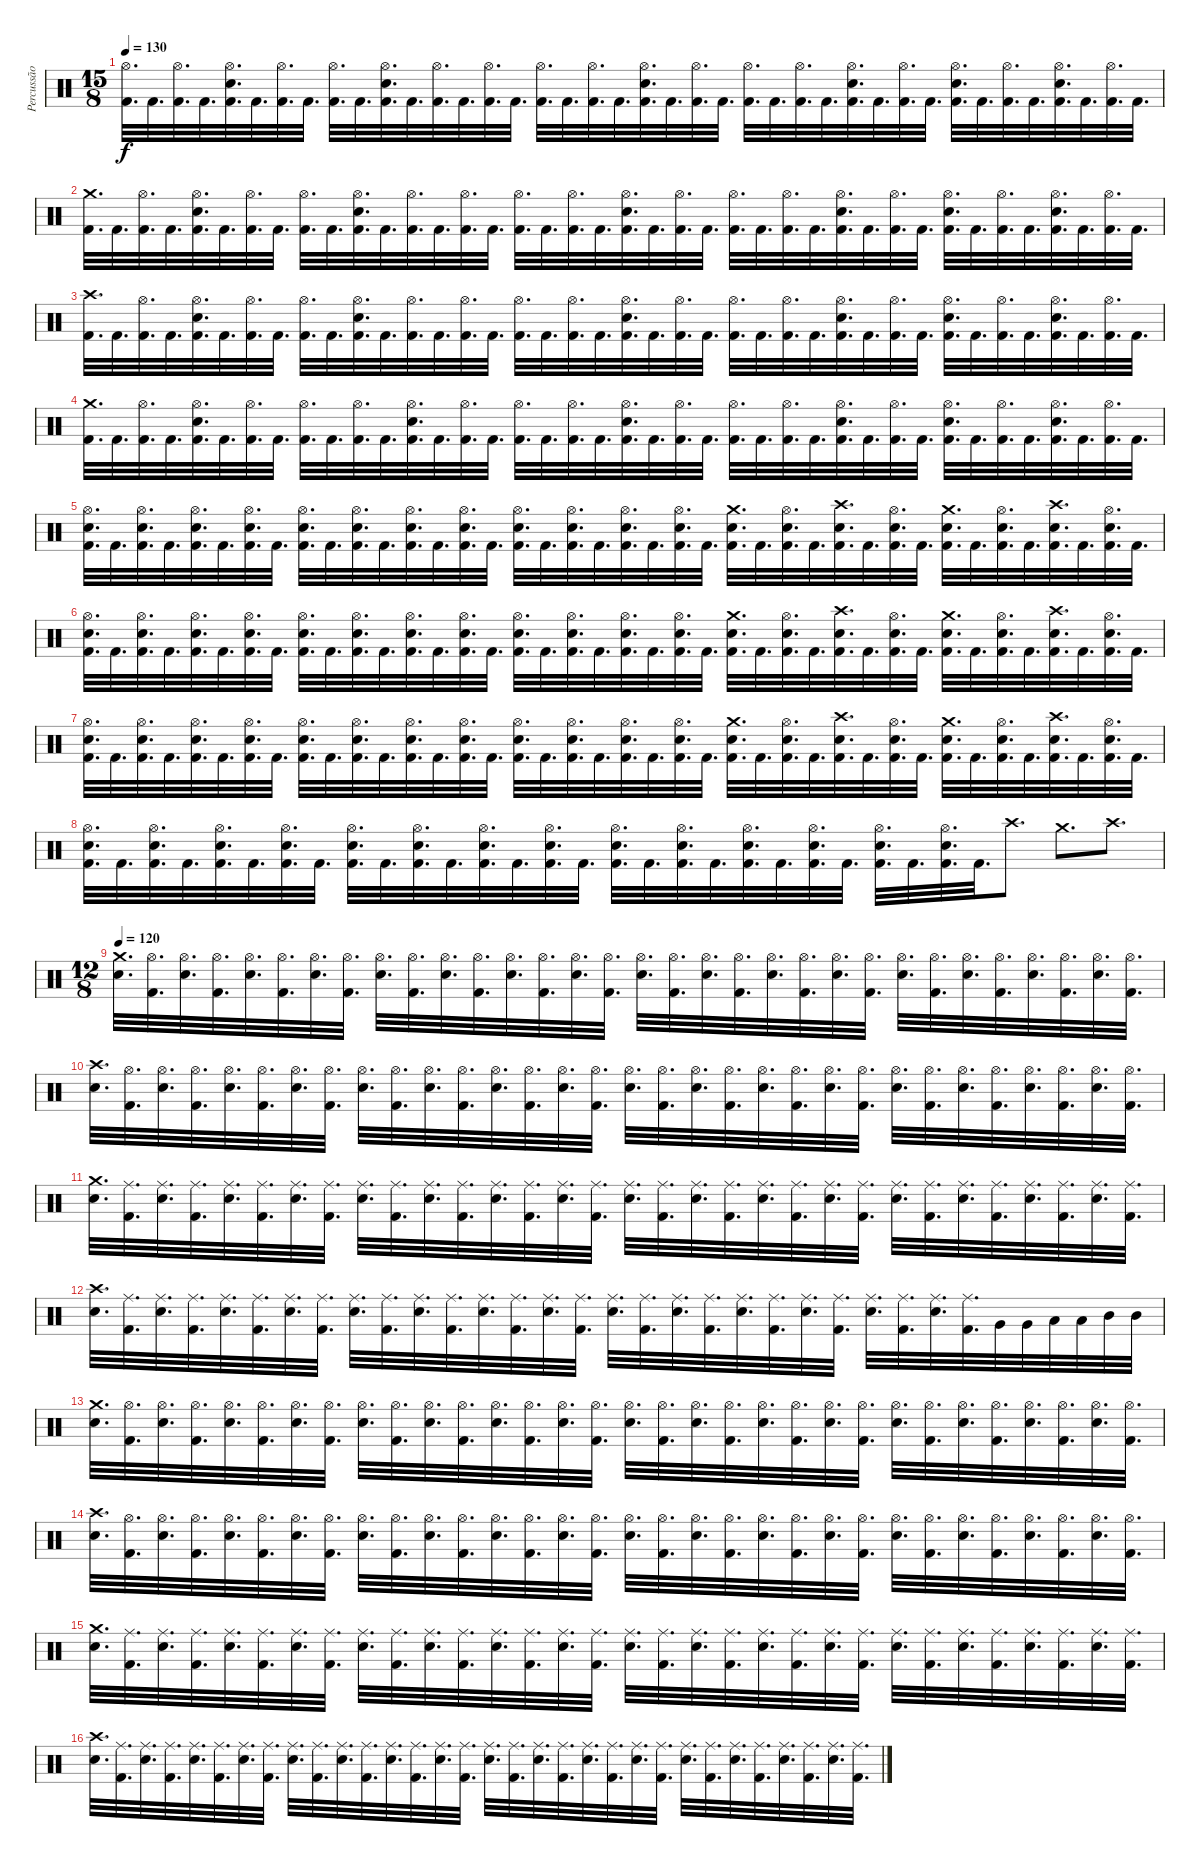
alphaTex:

\track ("Percussão" "Percussão") {instrument percussion}
\staff {score}
\articulation defaults
\ts (15 8)
\tempo 130
\clef neutral
\ks c
("Hi-Hat (open)" "Kick (hit) 2").32{d dy f} "Kick (hit) 2".32{d} ("Hi-Hat (open)" "Kick (hit) 2").32{d} "Kick (hit) 2".32{d} ("Hi-Hat (open)" "Electric Snare (hit)" "Kick (hit) 2").32{d} "Kick (hit) 2".32{d} ("Hi-Hat (open)" "Kick (hit) 2").32{d} "Kick (hit) 2".32{d} ("Hi-Hat (open)" "Kick (hit) 2").32{d} "Kick (hit) 2".32{d} ("Hi-Hat (open)" "Electric Snare (hit)" "Kick (hit) 2").32{d} "Kick (hit) 2".32{d} ("Hi-Hat (open)" "Kick (hit) 2").32{d} "Kick (hit) 2".32{d} ("Hi-Hat (open)" "Kick (hit) 2").32{d} "Kick (hit) 2".32{d} ("Hi-Hat (open)" "Kick (hit) 2").32{d} "Kick (hit) 2".32{d} ("Hi-Hat (open)" "Kick (hit) 2").32{d} "Kick (hit) 2".32{d} ("Hi-Hat (open)" "Electric Snare (hit)" "Kick (hit) 2").32{d} "Kick (hit) 2".32{d} ("Hi-Hat (open)" "Kick (hit) 2").32{d} "Kick (hit) 2".32{d} ("Hi-Hat (open)" "Kick (hit) 2").32{d} "Kick (hit) 2".32{d} ("Hi-Hat (open)" "Kick (hit) 2").32{d} "Kick (hit) 2".32{d} ("Hi-Hat (open)" "Electric Snare (hit)" "Kick (hit) 2").32{d} "Kick (hit) 2".32{d} ("Hi-Hat (open)" "Kick (hit) 2").32{d} "Kick (hit) 2".32{d} ("Hi-Hat (open)" "Electric Snare (hit)" "Kick (hit) 2").32{d} "Kick (hit) 2".32{d} ("Hi-Hat (open)" "Kick (hit) 2").32{d} "Kick (hit) 2".32{d} ("Hi-Hat (open)" "Electric Snare (hit)" "Kick (hit) 2").32{d} "Kick (hit) 2".32{d} ("Hi-Hat (open)" "Kick (hit) 2").32{d} "Kick (hit) 2".32{d} |
("Crash medium (hit)" "Kick (hit) 2").32{d} "Kick (hit) 2".32{d} ("Hi-Hat (open)" "Kick (hit) 2").32{d} "Kick (hit) 2".32{d} ("Hi-Hat (open)" "Electric Snare (hit)" "Kick (hit) 2").32{d} "Kick (hit) 2".32{d} ("Hi-Hat (open)" "Kick (hit) 2").32{d} "Kick (hit) 2".32{d} ("Hi-Hat (open)" "Kick (hit) 2").32{d} "Kick (hit) 2".32{d} ("Hi-Hat (open)" "Electric Snare (hit)" "Kick (hit) 2").32{d} "Kick (hit) 2".32{d} ("Hi-Hat (open)" "Kick (hit) 2").32{d} "Kick (hit) 2".32{d} ("Hi-Hat (open)" "Kick (hit) 2").32{d} "Kick (hit) 2".32{d} ("Hi-Hat (open)" "Kick (hit) 2").32{d} "Kick (hit) 2".32{d} ("Hi-Hat (open)" "Kick (hit) 2").32{d} "Kick (hit) 2".32{d} ("Hi-Hat (open)" "Electric Snare (hit)" "Kick (hit) 2").32{d} "Kick (hit) 2".32{d} ("Hi-Hat (open)" "Kick (hit) 2").32{d} "Kick (hit) 2".32{d} ("Hi-Hat (open)" "Kick (hit) 2").32{d} "Kick (hit) 2".32{d} ("Hi-Hat (open)" "Kick (hit) 2").32{d} "Kick (hit) 2".32{d} ("Hi-Hat (open)" "Electric Snare (hit)" "Kick (hit) 2").32{d} "Kick (hit) 2".32{d} ("Hi-Hat (open)" "Kick (hit) 2").32{d} "Kick (hit) 2".32{d} ("Hi-Hat (open)" "Electric Snare (hit)" "Kick (hit) 2").32{d} "Kick (hit) 2".32{d} ("Hi-Hat (open)" "Kick (hit) 2").32{d} "Kick (hit) 2".32{d} ("Hi-Hat (open)" "Electric Snare (hit)" "Kick (hit) 2").32{d} "Kick (hit) 2".32{d} ("Hi-Hat (open)" "Kick (hit) 2").32{d} "Kick (hit) 2".32{d} |
("Crash high (hit)" "Kick (hit) 2").32{d} "Kick (hit) 2".32{d} ("Hi-Hat (open)" "Kick (hit) 2").32{d} "Kick (hit) 2".32{d} ("Hi-Hat (open)" "Electric Snare (hit)" "Kick (hit) 2").32{d} "Kick (hit) 2".32{d} ("Hi-Hat (open)" "Kick (hit) 2").32{d} "Kick (hit) 2".32{d} ("Hi-Hat (open)" "Kick (hit) 2").32{d} "Kick (hit) 2".32{d} ("Hi-Hat (open)" "Electric Snare (hit)" "Kick (hit) 2").32{d} "Kick (hit) 2".32{d} ("Hi-Hat (open)" "Kick (hit) 2").32{d} "Kick (hit) 2".32{d} ("Hi-Hat (open)" "Kick (hit) 2").32{d} "Kick (hit) 2".32{d} ("Hi-Hat (open)" "Kick (hit) 2").32{d} "Kick (hit) 2".32{d} ("Hi-Hat (open)" "Kick (hit) 2").32{d} "Kick (hit) 2".32{d} ("Hi-Hat (open)" "Electric Snare (hit)" "Kick (hit) 2").32{d} "Kick (hit) 2".32{d} ("Hi-Hat (open)" "Kick (hit) 2").32{d} "Kick (hit) 2".32{d} ("Hi-Hat (open)" "Kick (hit) 2").32{d} "Kick (hit) 2".32{d} ("Hi-Hat (open)" "Kick (hit) 2").32{d} "Kick (hit) 2".32{d} ("Hi-Hat (open)" "Electric Snare (hit)" "Kick (hit) 2").32{d} "Kick (hit) 2".32{d} ("Hi-Hat (open)" "Kick (hit) 2").32{d} "Kick (hit) 2".32{d} ("Hi-Hat (open)" "Electric Snare (hit)" "Kick (hit) 2").32{d} "Kick (hit) 2".32{d} ("Hi-Hat (open)" "Kick (hit) 2").32{d} "Kick (hit) 2".32{d} ("Hi-Hat (open)" "Electric Snare (hit)" "Kick (hit) 2").32{d} "Kick (hit) 2".32{d} ("Hi-Hat (open)" "Kick (hit) 2").32{d} "Kick (hit) 2".32{d} |
("Crash medium (hit)" "Kick (hit) 2").32{d} "Kick (hit) 2".32{d} ("Hi-Hat (open)" "Kick (hit) 2").32{d} "Kick (hit) 2".32{d} ("Hi-Hat (open)" "Electric Snare (hit)" "Kick (hit) 2").32{d} "Kick (hit) 2".32{d} ("Hi-Hat (open)" "Kick (hit) 2").32{d} "Kick (hit) 2".32{d} ("Hi-Hat (open)" "Kick (hit) 2").32{d} "Kick (hit) 2".32{d} ("Hi-Hat (open)" "Kick (hit) 2").32{d} "Kick (hit) 2".32{d} ("Hi-Hat (open)" "Electric Snare (hit)" "Kick (hit) 2").32{d} "Kick (hit) 2".32{d} ("Hi-Hat (open)" "Kick (hit) 2").32{d} "Kick (hit) 2".32{d} ("Hi-Hat (open)" "Kick (hit) 2").32{d} "Kick (hit) 2".32{d} ("Hi-Hat (open)" "Kick (hit) 2").32{d} "Kick (hit) 2".32{d} ("Hi-Hat (open)" "Electric Snare (hit)" "Kick (hit) 2").32{d} "Kick (hit) 2".32{d} ("Hi-Hat (open)" "Kick (hit) 2").32{d} "Kick (hit) 2".32{d} ("Hi-Hat (open)" "Kick (hit) 2").32{d} "Kick (hit) 2".32{d} ("Hi-Hat (open)" "Kick (hit) 2").32{d} "Kick (hit) 2".32{d} ("Hi-Hat (open)" "Electric Snare (hit)" "Kick (hit) 2").32{d} "Kick (hit) 2".32{d} ("Hi-Hat (open)" "Kick (hit) 2").32{d} "Kick (hit) 2".32{d} ("Hi-Hat (open)" "Electric Snare (hit)" "Kick (hit) 2").32{d} "Kick (hit) 2".32{d} ("Hi-Hat (open)" "Kick (hit) 2").32{d} "Kick (hit) 2".32{d} ("Hi-Hat (open)" "Electric Snare (hit)" "Kick (hit) 2").32{d} "Kick (hit) 2".32{d} ("Hi-Hat (open)" "Kick (hit) 2").32{d} "Kick (hit) 2".32{d} |
("Hi-Hat (open)" "Electric Snare (hit)" "Kick (hit) 2").32{d} "Kick (hit) 2".32{d} ("Hi-Hat (open)" "Electric Snare (hit)" "Kick (hit) 2").32{d} "Kick (hit) 2".32{d} ("Hi-Hat (open)" "Electric Snare (hit)" "Kick (hit) 2").32{d} "Kick (hit) 2".32{d} ("Hi-Hat (open)" "Electric Snare (hit)" "Kick (hit) 2").32{d} "Kick (hit) 2".32{d} ("Hi-Hat (open)" "Electric Snare (hit)" "Kick (hit) 2").32{d} "Kick (hit) 2".32{d} ("Hi-Hat (open)" "Electric Snare (hit)" "Kick (hit) 2").32{d} "Kick (hit) 2".32{d} ("Hi-Hat (open)" "Electric Snare (hit)" "Kick (hit) 2").32{d} "Kick (hit) 2".32{d} ("Hi-Hat (open)" "Electric Snare (hit)" "Kick (hit) 2").32{d} "Kick (hit) 2".32{d} ("Hi-Hat (open)" "Electric Snare (hit)" "Kick (hit) 2").32{d} "Kick (hit) 2".32{d} ("Hi-Hat (open)" "Electric Snare (hit)" "Kick (hit) 2").32{d} "Kick (hit) 2".32{d} ("Hi-Hat (open)" "Electric Snare (hit)" "Kick (hit) 2").32{d} "Kick (hit) 2".32{d} ("Hi-Hat (open)" "Electric Snare (hit)" "Kick (hit) 2").32{d} "Kick (hit) 2".32{d} ("Crash medium (hit)" "Electric Snare (hit)" "Kick (hit) 2").32{d} "Kick (hit) 2".32{d} ("Hi-Hat (open)" "Electric Snare (hit)" "Kick (hit) 2").32{d} "Kick (hit) 2".32{d} ("Crash high (hit)" "Electric Snare (hit)" "Kick (hit) 2").32{d} "Kick (hit) 2".32{d} ("Hi-Hat (open)" "Electric Snare (hit)" "Kick (hit) 2").32{d} "Kick (hit) 2".32{d} ("Crash medium (hit)" "Electric Snare (hit)" "Kick (hit) 2").32{d} "Kick (hit) 2".32{d} ("Hi-Hat (open)" "Electric Snare (hit)" "Kick (hit) 2").32{d} "Kick (hit) 2".32{d} ("Crash high (hit)" "Electric Snare (hit)" "Kick (hit) 2").32{d} "Kick (hit) 2".32{d} ("Hi-Hat (open)" "Electric Snare (hit)" "Kick (hit) 2").32{d} "Kick (hit) 2".32{d} |
("Hi-Hat (open)" "Electric Snare (hit)" "Kick (hit) 2").32{d} "Kick (hit) 2".32{d} ("Hi-Hat (open)" "Electric Snare (hit)" "Kick (hit) 2").32{d} "Kick (hit) 2".32{d} ("Hi-Hat (open)" "Electric Snare (hit)" "Kick (hit) 2").32{d} "Kick (hit) 2".32{d} ("Hi-Hat (open)" "Electric Snare (hit)" "Kick (hit) 2").32{d} "Kick (hit) 2".32{d} ("Hi-Hat (open)" "Electric Snare (hit)" "Kick (hit) 2").32{d} "Kick (hit) 2".32{d} ("Hi-Hat (open)" "Electric Snare (hit)" "Kick (hit) 2").32{d} "Kick (hit) 2".32{d} ("Hi-Hat (open)" "Electric Snare (hit)" "Kick (hit) 2").32{d} "Kick (hit) 2".32{d} ("Hi-Hat (open)" "Electric Snare (hit)" "Kick (hit) 2").32{d} "Kick (hit) 2".32{d} ("Hi-Hat (open)" "Electric Snare (hit)" "Kick (hit) 2").32{d} "Kick (hit) 2".32{d} ("Hi-Hat (open)" "Electric Snare (hit)" "Kick (hit) 2").32{d} "Kick (hit) 2".32{d} ("Hi-Hat (open)" "Electric Snare (hit)" "Kick (hit) 2").32{d} "Kick (hit) 2".32{d} ("Hi-Hat (open)" "Electric Snare (hit)" "Kick (hit) 2").32{d} "Kick (hit) 2".32{d} ("Crash medium (hit)" "Electric Snare (hit)" "Kick (hit) 2").32{d} "Kick (hit) 2".32{d} ("Hi-Hat (open)" "Electric Snare (hit)" "Kick (hit) 2").32{d} "Kick (hit) 2".32{d} ("Crash high (hit)" "Electric Snare (hit)" "Kick (hit) 2").32{d} "Kick (hit) 2".32{d} ("Hi-Hat (open)" "Electric Snare (hit)" "Kick (hit) 2").32{d} "Kick (hit) 2".32{d} ("Crash medium (hit)" "Electric Snare (hit)" "Kick (hit) 2").32{d} "Kick (hit) 2".32{d} ("Hi-Hat (open)" "Electric Snare (hit)" "Kick (hit) 2").32{d} "Kick (hit) 2".32{d} ("Crash high (hit)" "Electric Snare (hit)" "Kick (hit) 2").32{d} "Kick (hit) 2".32{d} ("Hi-Hat (open)" "Electric Snare (hit)" "Kick (hit) 2").32{d} "Kick (hit) 2".32{d} |
("Hi-Hat (open)" "Electric Snare (hit)" "Kick (hit) 2").32{d} "Kick (hit) 2".32{d} ("Hi-Hat (open)" "Electric Snare (hit)" "Kick (hit) 2").32{d} "Kick (hit) 2".32{d} ("Hi-Hat (open)" "Electric Snare (hit)" "Kick (hit) 2").32{d} "Kick (hit) 2".32{d} ("Hi-Hat (open)" "Electric Snare (hit)" "Kick (hit) 2").32{d} "Kick (hit) 2".32{d} ("Hi-Hat (open)" "Electric Snare (hit)" "Kick (hit) 2").32{d} "Kick (hit) 2".32{d} ("Hi-Hat (open)" "Electric Snare (hit)" "Kick (hit) 2").32{d} "Kick (hit) 2".32{d} ("Hi-Hat (open)" "Electric Snare (hit)" "Kick (hit) 2").32{d} "Kick (hit) 2".32{d} ("Hi-Hat (open)" "Electric Snare (hit)" "Kick (hit) 2").32{d} "Kick (hit) 2".32{d} ("Hi-Hat (open)" "Electric Snare (hit)" "Kick (hit) 2").32{d} "Kick (hit) 2".32{d} ("Hi-Hat (open)" "Electric Snare (hit)" "Kick (hit) 2").32{d} "Kick (hit) 2".32{d} ("Hi-Hat (open)" "Electric Snare (hit)" "Kick (hit) 2").32{d} "Kick (hit) 2".32{d} ("Hi-Hat (open)" "Electric Snare (hit)" "Kick (hit) 2").32{d} "Kick (hit) 2".32{d} ("Crash medium (hit)" "Electric Snare (hit)" "Kick (hit) 2").32{d} "Kick (hit) 2".32{d} ("Hi-Hat (open)" "Electric Snare (hit)" "Kick (hit) 2").32{d} "Kick (hit) 2".32{d} ("Crash high (hit)" "Electric Snare (hit)" "Kick (hit) 2").32{d} "Kick (hit) 2".32{d} ("Hi-Hat (open)" "Electric Snare (hit)" "Kick (hit) 2").32{d} "Kick (hit) 2".32{d} ("Crash medium (hit)" "Electric Snare (hit)" "Kick (hit) 2").32{d} "Kick (hit) 2".32{d} ("Hi-Hat (open)" "Electric Snare (hit)" "Kick (hit) 2").32{d} "Kick (hit) 2".32{d} ("Crash high (hit)" "Electric Snare (hit)" "Kick (hit) 2").32{d} "Kick (hit) 2".32{d} ("Hi-Hat (open)" "Electric Snare (hit)" "Kick (hit) 2").32{d} "Kick (hit) 2".32{d} |
("Hi-Hat (open)" "Electric Snare (hit)" "Kick (hit) 2").32{d} "Kick (hit) 2".32{d} ("Hi-Hat (open)" "Electric Snare (hit)" "Kick (hit) 2").32{d} "Kick (hit) 2".32{d} ("Hi-Hat (open)" "Electric Snare (hit)" "Kick (hit) 2").32{d} "Kick (hit) 2".32{d} ("Hi-Hat (open)" "Electric Snare (hit)" "Kick (hit) 2").32{d} "Kick (hit) 2".32{d} ("Hi-Hat (open)" "Electric Snare (hit)" "Kick (hit) 2").32{d} "Kick (hit) 2".32{d} ("Hi-Hat (open)" "Electric Snare (hit)" "Kick (hit) 2").32{d} "Kick (hit) 2".32{d} ("Hi-Hat (open)" "Electric Snare (hit)" "Kick (hit) 2").32{d} "Kick (hit) 2".32{d} ("Hi-Hat (open)" "Electric Snare (hit)" "Kick (hit) 2").32{d} "Kick (hit) 2".32{d} ("Hi-Hat (open)" "Electric Snare (hit)" "Kick (hit) 2").32{d} "Kick (hit) 2".32{d} ("Hi-Hat (open)" "Electric Snare (hit)" "Kick (hit) 2").32{d} "Kick (hit) 2".32{d} ("Hi-Hat (open)" "Electric Snare (hit)" "Kick (hit) 2").32{d} "Kick (hit) 2".32{d} ("Hi-Hat (open)" "Electric Snare (hit)" "Kick (hit) 2").32{d} "Kick (hit) 2".32{d} ("Hi-Hat (open)" "Electric Snare (hit)" "Kick (hit) 2").32{d} "Kick (hit) 2".32{d} ("Hi-Hat (open)" "Electric Snare (hit)" "Kick (hit) 2").32{d} "Kick (hit) 2".32{d} "Crash high (hit)".8{d} "Crash medium (hit)".8{d} "Crash high (hit)".8{d} |
\ts (12 8)
\tempo 120
("Crash medium (hit)" "Electric Snare (hit)").32{d} ("Hi-Hat (open)" "Kick (hit) 2").32{d} ("Hi-Hat (open)" "Electric Snare (hit)").32{d} ("Hi-Hat (open)" "Kick (hit) 2").32{d} ("Hi-Hat (open)" "Electric Snare (hit)").32{d} ("Hi-Hat (open)" "Kick (hit) 2").32{d} ("Hi-Hat (open)" "Electric Snare (hit)").32{d} ("Hi-Hat (open)" "Kick (hit) 2").32{d} ("Hi-Hat (open)" "Electric Snare (hit)").32{d} ("Hi-Hat (open)" "Kick (hit) 2").32{d} ("Hi-Hat (open)" "Electric Snare (hit)").32{d} ("Hi-Hat (open)" "Kick (hit) 2").32{d} ("Hi-Hat (open)" "Electric Snare (hit)").32{d} ("Hi-Hat (open)" "Kick (hit) 2").32{d} ("Hi-Hat (open)" "Electric Snare (hit)").32{d} ("Hi-Hat (open)" "Kick (hit) 2").32{d} ("Hi-Hat (open)" "Electric Snare (hit)").32{d} ("Hi-Hat (open)" "Kick (hit) 2").32{d} ("Hi-Hat (open)" "Electric Snare (hit)").32{d} ("Hi-Hat (open)" "Kick (hit) 2").32{d} ("Hi-Hat (open)" "Electric Snare (hit)").32{d} ("Hi-Hat (open)" "Kick (hit) 2").32{d} ("Hi-Hat (open)" "Electric Snare (hit)").32{d} ("Hi-Hat (open)" "Kick (hit) 2").32{d} ("Hi-Hat (open)" "Electric Snare (hit)").32{d} ("Hi-Hat (open)" "Kick (hit) 2").32{d} ("Hi-Hat (open)" "Electric Snare (hit)").32{d} ("Hi-Hat (open)" "Kick (hit) 2").32{d} ("Hi-Hat (open)" "Electric Snare (hit)").32{d} ("Hi-Hat (open)" "Kick (hit) 2").32{d} ("Hi-Hat (open)" "Electric Snare (hit)").32{d} ("Hi-Hat (open)" "Kick (hit) 2").32{d} |
("Crash high (hit)" "Electric Snare (hit)").32{d} ("Hi-Hat (open)" "Kick (hit) 2").32{d} ("Hi-Hat (open)" "Electric Snare (hit)").32{d} ("Hi-Hat (open)" "Kick (hit) 2").32{d} ("Hi-Hat (open)" "Electric Snare (hit)").32{d} ("Hi-Hat (open)" "Kick (hit) 2").32{d} ("Hi-Hat (open)" "Electric Snare (hit)").32{d} ("Hi-Hat (open)" "Kick (hit) 2").32{d} ("Hi-Hat (open)" "Electric Snare (hit)").32{d} ("Hi-Hat (open)" "Kick (hit) 2").32{d} ("Hi-Hat (open)" "Electric Snare (hit)").32{d} ("Hi-Hat (open)" "Kick (hit) 2").32{d} ("Hi-Hat (open)" "Electric Snare (hit)").32{d} ("Hi-Hat (open)" "Kick (hit) 2").32{d} ("Hi-Hat (open)" "Electric Snare (hit)").32{d} ("Hi-Hat (open)" "Kick (hit) 2").32{d} ("Hi-Hat (open)" "Electric Snare (hit)").32{d} ("Hi-Hat (open)" "Kick (hit) 2").32{d} ("Hi-Hat (open)" "Electric Snare (hit)").32{d} ("Hi-Hat (open)" "Kick (hit) 2").32{d} ("Hi-Hat (open)" "Electric Snare (hit)").32{d} ("Hi-Hat (open)" "Kick (hit) 2").32{d} ("Hi-Hat (open)" "Electric Snare (hit)").32{d} ("Hi-Hat (open)" "Kick (hit) 2").32{d} ("Hi-Hat (open)" "Electric Snare (hit)").32{d} ("Hi-Hat (open)" "Kick (hit) 2").32{d} ("Hi-Hat (open)" "Electric Snare (hit)").32{d} ("Hi-Hat (open)" "Kick (hit) 2").32{d} ("Hi-Hat (open)" "Electric Snare (hit)").32{d} ("Hi-Hat (open)" "Kick (hit) 2").32{d} ("Hi-Hat (open)" "Electric Snare (hit)").32{d} ("Hi-Hat (open)" "Kick (hit) 2").32{d} |
("Crash medium (hit)" "Electric Snare (hit)").32{d} ("Ride (middle)" "Kick (hit) 2").32{d} ("Ride (middle)" "Electric Snare (hit)").32{d} ("Ride (middle)" "Kick (hit) 2").32{d} ("Ride (middle)" "Electric Snare (hit)").32{d} ("Ride (middle)" "Kick (hit) 2").32{d} ("Ride (middle)" "Electric Snare (hit)").32{d} ("Ride (middle)" "Kick (hit) 2").32{d} ("Ride (middle)" "Electric Snare (hit)").32{d} ("Ride (middle)" "Kick (hit) 2").32{d} ("Ride (middle)" "Electric Snare (hit)").32{d} ("Ride (middle)" "Kick (hit) 2").32{d} ("Ride (middle)" "Electric Snare (hit)").32{d} ("Ride (middle)" "Kick (hit) 2").32{d} ("Ride (middle)" "Electric Snare (hit)").32{d} ("Ride (middle)" "Kick (hit) 2").32{d} ("Ride (middle)" "Electric Snare (hit)").32{d} ("Ride (middle)" "Kick (hit) 2").32{d} ("Ride (middle)" "Electric Snare (hit)").32{d} ("Ride (middle)" "Kick (hit) 2").32{d} ("Ride (middle)" "Electric Snare (hit)").32{d} ("Ride (middle)" "Kick (hit) 2").32{d} ("Ride (middle)" "Electric Snare (hit)").32{d} ("Ride (middle)" "Kick (hit) 2").32{d} ("Ride (middle)" "Electric Snare (hit)").32{d} ("Ride (middle)" "Kick (hit) 2").32{d} ("Ride (middle)" "Electric Snare (hit)").32{d} ("Ride (middle)" "Kick (hit) 2").32{d} ("Ride (middle)" "Electric Snare (hit)").32{d} ("Ride (middle)" "Kick (hit) 2").32{d} ("Ride (middle)" "Electric Snare (hit)").32{d} ("Ride (middle)" "Kick (hit) 2").32{d} |
("Crash high (hit)" "Electric Snare (hit)").32{d} ("Ride (middle)" "Kick (hit) 2").32{d} ("Ride (middle)" "Electric Snare (hit)").32{d} ("Ride (middle)" "Kick (hit) 2").32{d} ("Ride (middle)" "Electric Snare (hit)").32{d} ("Ride (middle)" "Kick (hit) 2").32{d} ("Ride (middle)" "Electric Snare (hit)").32{d} ("Ride (middle)" "Kick (hit) 2").32{d} ("Ride (middle)" "Electric Snare (hit)").32{d} ("Ride (middle)" "Kick (hit) 2").32{d} ("Ride (middle)" "Electric Snare (hit)").32{d} ("Ride (middle)" "Kick (hit) 2").32{d} ("Ride (middle)" "Electric Snare (hit)").32{d} ("Ride (middle)" "Kick (hit) 2").32{d} ("Ride (middle)" "Electric Snare (hit)").32{d} ("Ride (middle)" "Kick (hit) 2").32{d} ("Ride (middle)" "Electric Snare (hit)").32{d} ("Ride (middle)" "Kick (hit) 2").32{d} ("Ride (middle)" "Electric Snare (hit)").32{d} ("Ride (middle)" "Kick (hit) 2").32{d} ("Ride (middle)" "Electric Snare (hit)").32{d} ("Ride (middle)" "Kick (hit) 2").32{d} ("Ride (middle)" "Electric Snare (hit)").32{d} ("Ride (middle)" "Kick (hit) 2").32{d} ("Ride (middle)" "Electric Snare (hit)").32{d} ("Ride (middle)" "Kick (hit) 2").32{d} ("Ride (middle)" "Electric Snare (hit)").32{d} ("Ride (middle)" "Kick (hit) 2").32{d} "Very Low Tom (hit)".32 "Very Low Tom (hit)".32 "Low Tom (hit)".32 "Low Tom (hit)".32 "Mid Tom (hit)".32 "Mid Tom (hit)".32 |
("Crash medium (hit)" "Electric Snare (hit)").32{d} ("Hi-Hat (open)" "Kick (hit) 2").32{d} ("Hi-Hat (open)" "Electric Snare (hit)").32{d} ("Hi-Hat (open)" "Kick (hit) 2").32{d} ("Hi-Hat (open)" "Electric Snare (hit)").32{d} ("Hi-Hat (open)" "Kick (hit) 2").32{d} ("Hi-Hat (open)" "Electric Snare (hit)").32{d} ("Hi-Hat (open)" "Kick (hit) 2").32{d} ("Hi-Hat (open)" "Electric Snare (hit)").32{d} ("Hi-Hat (open)" "Kick (hit) 2").32{d} ("Hi-Hat (open)" "Electric Snare (hit)").32{d} ("Hi-Hat (open)" "Kick (hit) 2").32{d} ("Hi-Hat (open)" "Electric Snare (hit)").32{d} ("Hi-Hat (open)" "Kick (hit) 2").32{d} ("Hi-Hat (open)" "Electric Snare (hit)").32{d} ("Hi-Hat (open)" "Kick (hit) 2").32{d} ("Hi-Hat (open)" "Electric Snare (hit)").32{d} ("Hi-Hat (open)" "Kick (hit) 2").32{d} ("Hi-Hat (open)" "Electric Snare (hit)").32{d} ("Hi-Hat (open)" "Kick (hit) 2").32{d} ("Hi-Hat (open)" "Electric Snare (hit)").32{d} ("Hi-Hat (open)" "Kick (hit) 2").32{d} ("Hi-Hat (open)" "Electric Snare (hit)").32{d} ("Hi-Hat (open)" "Kick (hit) 2").32{d} ("Hi-Hat (open)" "Electric Snare (hit)").32{d} ("Hi-Hat (open)" "Kick (hit) 2").32{d} ("Hi-Hat (open)" "Electric Snare (hit)").32{d} ("Hi-Hat (open)" "Kick (hit) 2").32{d} ("Hi-Hat (open)" "Electric Snare (hit)").32{d} ("Hi-Hat (open)" "Kick (hit) 2").32{d} ("Hi-Hat (open)" "Electric Snare (hit)").32{d} ("Hi-Hat (open)" "Kick (hit) 2").32{d} |
("Crash high (hit)" "Electric Snare (hit)").32{d} ("Hi-Hat (open)" "Kick (hit) 2").32{d} ("Hi-Hat (open)" "Electric Snare (hit)").32{d} ("Hi-Hat (open)" "Kick (hit) 2").32{d} ("Hi-Hat (open)" "Electric Snare (hit)").32{d} ("Hi-Hat (open)" "Kick (hit) 2").32{d} ("Hi-Hat (open)" "Electric Snare (hit)").32{d} ("Hi-Hat (open)" "Kick (hit) 2").32{d} ("Hi-Hat (open)" "Electric Snare (hit)").32{d} ("Hi-Hat (open)" "Kick (hit) 2").32{d} ("Hi-Hat (open)" "Electric Snare (hit)").32{d} ("Hi-Hat (open)" "Kick (hit) 2").32{d} ("Hi-Hat (open)" "Electric Snare (hit)").32{d} ("Hi-Hat (open)" "Kick (hit) 2").32{d} ("Hi-Hat (open)" "Electric Snare (hit)").32{d} ("Hi-Hat (open)" "Kick (hit) 2").32{d} ("Hi-Hat (open)" "Electric Snare (hit)").32{d} ("Hi-Hat (open)" "Kick (hit) 2").32{d} ("Hi-Hat (open)" "Electric Snare (hit)").32{d} ("Hi-Hat (open)" "Kick (hit) 2").32{d} ("Hi-Hat (open)" "Electric Snare (hit)").32{d} ("Hi-Hat (open)" "Kick (hit) 2").32{d} ("Hi-Hat (open)" "Electric Snare (hit)").32{d} ("Hi-Hat (open)" "Kick (hit) 2").32{d} ("Hi-Hat (open)" "Electric Snare (hit)").32{d} ("Hi-Hat (open)" "Kick (hit) 2").32{d} ("Hi-Hat (open)" "Electric Snare (hit)").32{d} ("Hi-Hat (open)" "Kick (hit) 2").32{d} ("Hi-Hat (open)" "Electric Snare (hit)").32{d} ("Hi-Hat (open)" "Kick (hit) 2").32{d} ("Hi-Hat (open)" "Electric Snare (hit)").32{d} ("Hi-Hat (open)" "Kick (hit) 2").32{d} |
("Crash medium (hit)" "Electric Snare (hit)").32{d} ("Ride (middle)" "Kick (hit) 2").32{d} ("Ride (middle)" "Electric Snare (hit)").32{d} ("Ride (middle)" "Kick (hit) 2").32{d} ("Ride (middle)" "Electric Snare (hit)").32{d} ("Ride (middle)" "Kick (hit) 2").32{d} ("Ride (middle)" "Electric Snare (hit)").32{d} ("Ride (middle)" "Kick (hit) 2").32{d} ("Ride (middle)" "Electric Snare (hit)").32{d} ("Ride (middle)" "Kick (hit) 2").32{d} ("Ride (middle)" "Electric Snare (hit)").32{d} ("Ride (middle)" "Kick (hit) 2").32{d} ("Ride (middle)" "Electric Snare (hit)").32{d} ("Ride (middle)" "Kick (hit) 2").32{d} ("Ride (middle)" "Electric Snare (hit)").32{d} ("Ride (middle)" "Kick (hit) 2").32{d} ("Ride (middle)" "Electric Snare (hit)").32{d} ("Ride (middle)" "Kick (hit) 2").32{d} ("Ride (middle)" "Electric Snare (hit)").32{d} ("Ride (middle)" "Kick (hit) 2").32{d} ("Ride (middle)" "Electric Snare (hit)").32{d} ("Ride (middle)" "Kick (hit) 2").32{d} ("Ride (middle)" "Electric Snare (hit)").32{d} ("Ride (middle)" "Kick (hit) 2").32{d} ("Ride (middle)" "Electric Snare (hit)").32{d} ("Ride (middle)" "Kick (hit) 2").32{d} ("Ride (middle)" "Electric Snare (hit)").32{d} ("Ride (middle)" "Kick (hit) 2").32{d} ("Ride (middle)" "Electric Snare (hit)").32{d} ("Ride (middle)" "Kick (hit) 2").32{d} ("Ride (middle)" "Electric Snare (hit)").32{d} ("Ride (middle)" "Kick (hit) 2").32{d} |
("Crash high (hit)" "Electric Snare (hit)").32{d} ("Ride (middle)" "Kick (hit) 2").32{d} ("Ride (middle)" "Electric Snare (hit)").32{d} ("Ride (middle)" "Kick (hit) 2").32{d} ("Ride (middle)" "Electric Snare (hit)").32{d} ("Ride (middle)" "Kick (hit) 2").32{d} ("Ride (middle)" "Electric Snare (hit)").32{d} ("Ride (middle)" "Kick (hit) 2").32{d} ("Ride (middle)" "Electric Snare (hit)").32{d} ("Ride (middle)" "Kick (hit) 2").32{d} ("Ride (middle)" "Electric Snare (hit)").32{d} ("Ride (middle)" "Kick (hit) 2").32{d} ("Ride (middle)" "Electric Snare (hit)").32{d} ("Ride (middle)" "Kick (hit) 2").32{d} ("Ride (middle)" "Electric Snare (hit)").32{d} ("Ride (middle)" "Kick (hit) 2").32{d} ("Ride (middle)" "Electric Snare (hit)").32{d} ("Ride (middle)" "Kick (hit) 2").32{d} ("Ride (middle)" "Electric Snare (hit)").32{d} ("Ride (middle)" "Kick (hit) 2").32{d} ("Ride (middle)" "Electric Snare (hit)").32{d} ("Ride (middle)" "Kick (hit) 2").32{d} ("Ride (middle)" "Electric Snare (hit)").32{d} ("Ride (middle)" "Kick (hit) 2").32{d} ("Ride (middle)" "Electric Snare (hit)").32{d} ("Ride (middle)" "Kick (hit) 2").32{d} ("Ride (middle)" "Electric Snare (hit)").32{d} ("Ride (middle)" "Kick (hit) 2").32{d} ("Ride (middle)" "Electric Snare (hit)").32{d} ("Ride (middle)" "Kick (hit) 2").32{d} ("Ride (middle)" "Electric Snare (hit)").32{d} ("Ride (middle)" "Kick (hit) 2").32{d}
